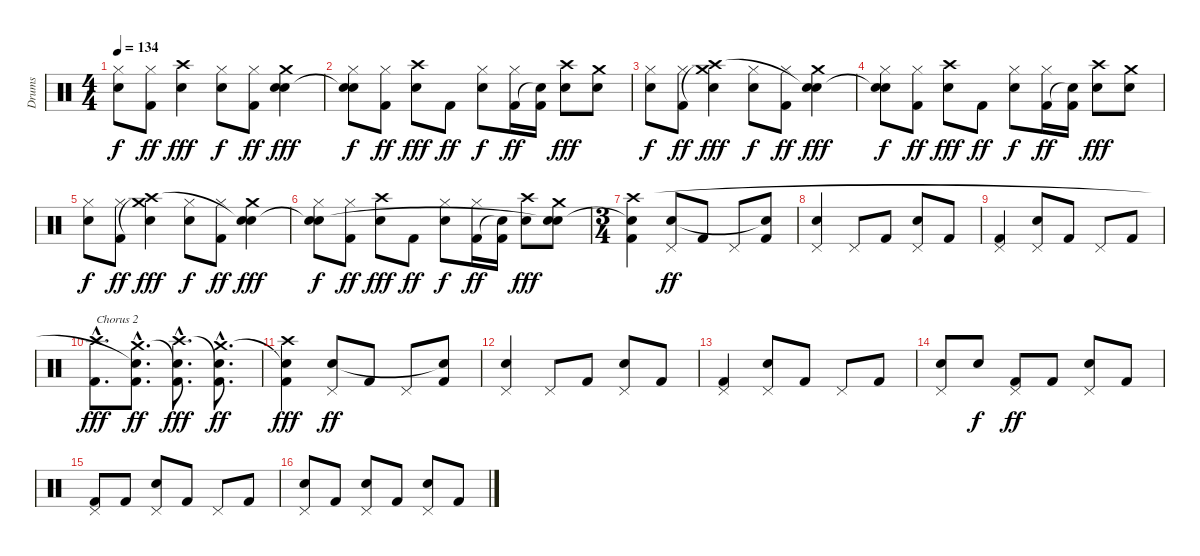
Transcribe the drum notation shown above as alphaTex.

\track ("Drums" "Drums") {instrument percussion}
\staff {score}
\articulation defaults
\ts (4 4)
\tempo 134
\clef neutral
\ks c
("Hi-Hat (closed)" "Snare (hit) 2").8{dy f} ("Hi-Hat (closed)" "Kick (hit) 2").8{dy ff} ("Snare (hit) 2" "Crash high (hit)").4{dy fff} ("Hi-Hat (closed)" "Snare (hit) 2").8{dy f} ("Hi-Hat (closed)" "Kick (hit) 2").8{dy ff} ("Snare (hit) 2" "Crash medium (hit)" "Snare (hit)").4{dy fff} |
("Hi-Hat (closed)" "Snare (hit) 2" "Snare (hit)"{t}).8{dy f} ("Hi-Hat (closed)" "Kick (hit) 2").8{dy ff} ("Snare (hit) 2" "Crash high (hit)").8{dy fff} "Kick (hit) 2".8{dy ff} ("Hi-Hat (closed)" "Snare (hit) 2").8{dy f} ("Hi-Hat (closed)" "Kick (hit) 2").16{dy ff} ("Kick (hit) 2" "Snare (hit)"{t}).16 ("Snare (hit) 2" "Crash high (hit)").8{dy fff} ("Snare (hit) 2" "Crash medium (hit)").8 |
("Hi-Hat (closed)" "Snare (hit) 2").8{dy f} ("Hi-Hat (closed)" "Kick (hit) 2").8{dy ff} ("Snare (hit) 2" "Crash medium (hit)"{t} "Crash high (hit)").4{dy fff} ("Hi-Hat (closed)" "Snare (hit) 2").8{dy f} ("Hi-Hat (closed)" "Kick (hit) 2").8{dy ff} ("Snare (hit) 2" "Crash medium (hit)" "Snare (hit)"{t}).4{dy fff} |
("Hi-Hat (closed)" "Snare (hit) 2" "Snare (hit)"{t}).8{dy f} ("Hi-Hat (closed)" "Kick (hit) 2").8{dy ff} ("Snare (hit) 2" "Crash high (hit)").8{dy fff} "Kick (hit) 2".8{dy ff} ("Hi-Hat (closed)" "Snare (hit) 2").8{dy f} ("Hi-Hat (closed)" "Kick (hit) 2").16{dy ff} ("Kick (hit) 2" "Snare (hit)"{t}).16 ("Snare (hit) 2" "Crash high (hit)").8{dy fff} ("Snare (hit) 2" "Crash medium (hit)").8 |
("Hi-Hat (closed)" "Snare (hit) 2").8{dy f} ("Hi-Hat (closed)" "Kick (hit) 2").8{dy ff} ("Snare (hit) 2" "Crash medium (hit)"{t} "Crash high (hit)").4{dy fff} ("Hi-Hat (closed)" "Snare (hit) 2").8{dy f} ("Hi-Hat (closed)" "Kick (hit) 2").8{dy ff} ("Snare (hit) 2" "Crash medium (hit)" "Snare (hit)"{t}).4{dy fff} |
("Hi-Hat (closed)" "Snare (hit) 2" "Snare (hit)"{t}).8{dy f} ("Hi-Hat (closed)" "Kick (hit) 2").8{dy ff} ("Snare (hit) 2" "Crash high (hit)").8{dy fff} "Kick (hit) 2".8{dy ff} ("Hi-Hat (closed)" "Snare (hit) 2").8{dy f} ("Hi-Hat (closed)" "Kick (hit) 2").16{dy ff} ("Kick (hit) 2" "Snare (hit)"{t}).16 ("Snare (hit) 2" "Crash high (hit)").8{dy fff} ("Snare (hit) 2" "Crash medium (hit)" "Snare (hit)"{t}).8 |
\ts (3 4)
("Snare (hit)"{t} "Kick (hit) 2" "Crash high (hit)").4 ("Pedal Hi-Hat (hit)" "Snare (hit) 2").8{dy ff} "Kick (hit) 2".8 "Pedal Hi-Hat (hit)".8 ("Kick (hit) 2" "Snare (hit)"{t}).8 |
("Pedal Hi-Hat (hit)" "Snare (hit) 2").4 "Pedal Hi-Hat (hit)".8 "Kick (hit) 2".8 ("Pedal Hi-Hat (hit)" "Snare (hit) 2").8 "Kick (hit) 2".8 |
("Pedal Hi-Hat (hit)" "Kick (hit) 2").4 ("Pedal Hi-Hat (hit)" "Snare (hit) 2").8 "Kick (hit) 2".8 "Pedal Hi-Hat (hit)".8 "Kick (hit) 2".8 |
("Kick (hit) 2"{hac} "Crash high (hit)"{hac}).8{d txt "Chorus 2" dy fff} ("Crash medium (hit)"{hac} "Kick (hit) 2"{hac} "Snare (hit)"{hac t}).8{d dy ff} ("Snare (hit)"{hac t} "Kick (hit) 2"{hac} "Crash high (hit)"{hac}).8{d dy fff} ("Crash medium (hit)"{hac} "Kick (hit) 2"{hac} "Snare (hit)"{hac t}).8{d dy ff} |
("Snare (hit)"{t} "Kick (hit) 2" "Crash high (hit)").4{dy fff} ("Pedal Hi-Hat (hit)" "Snare (hit) 2").8{dy ff} "Kick (hit) 2".8 "Pedal Hi-Hat (hit)".8 ("Kick (hit) 2" "Snare (hit)"{t}).8 |
("Pedal Hi-Hat (hit)" "Snare (hit) 2").4 "Pedal Hi-Hat (hit)".8 "Kick (hit) 2".8 ("Pedal Hi-Hat (hit)" "Snare (hit) 2").8 "Kick (hit) 2".8 |
("Pedal Hi-Hat (hit)" "Kick (hit) 2").4 ("Pedal Hi-Hat (hit)" "Snare (hit) 2").8 "Kick (hit) 2".8 "Pedal Hi-Hat (hit)".8 "Kick (hit) 2".8 |
("Pedal Hi-Hat (hit)" "Snare (hit) 2").8 "Snare (hit) 2".8{dy f} ("Pedal Hi-Hat (hit)" "Kick (hit) 2").8{dy ff} "Kick (hit) 2".8 ("Pedal Hi-Hat (hit)" "Snare (hit) 2").8 "Kick (hit) 2".8 |
("Pedal Hi-Hat (hit)" "Kick (hit) 2").8 "Kick (hit) 2".8 ("Pedal Hi-Hat (hit)" "Snare (hit) 2").8 "Kick (hit) 2".8 "Pedal Hi-Hat (hit)".8 "Kick (hit) 2".8 |
("Pedal Hi-Hat (hit)" "Snare (hit) 2").8 "Kick (hit) 2".8 ("Pedal Hi-Hat (hit)" "Snare (hit) 2").8 "Kick (hit) 2".8 ("Pedal Hi-Hat (hit)" "Snare (hit) 2").8 "Kick (hit) 2".8
